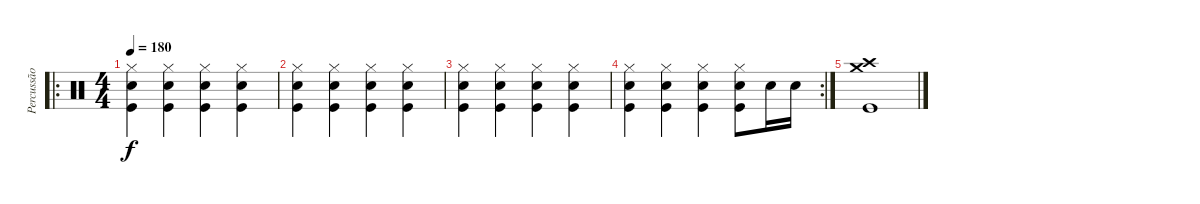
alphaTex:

\track ("Percussão" "Percussão") {instrument percussion}
\staff {score}
\articulation defaults
\ro
\ts (4 4)
\tempo 180
\clef neutral
\ks c
("Hi-Hat (closed)" "Kick (hit)" "Snare (hit) 2").4{dy f} ("Hi-Hat (closed)" "Kick (hit)" "Snare (hit) 2").4 ("Hi-Hat (closed)" "Kick (hit)" "Snare (hit) 2").4 ("Hi-Hat (closed)" "Kick (hit)" "Snare (hit) 2").4 |
("Hi-Hat (closed)" "Kick (hit)" "Snare (hit) 2").4 ("Hi-Hat (closed)" "Kick (hit)" "Snare (hit) 2").4 ("Hi-Hat (closed)" "Kick (hit)" "Snare (hit) 2").4 ("Hi-Hat (closed)" "Kick (hit)" "Snare (hit) 2").4 |
("Hi-Hat (closed)" "Kick (hit)" "Snare (hit) 2").4 ("Hi-Hat (closed)" "Kick (hit)" "Snare (hit) 2").4 ("Hi-Hat (closed)" "Kick (hit)" "Snare (hit) 2").4 ("Hi-Hat (closed)" "Kick (hit)" "Snare (hit) 2").4 |
\rc 2
("Hi-Hat (closed)" "Kick (hit)" "Snare (hit) 2").4 ("Hi-Hat (closed)" "Kick (hit)" "Snare (hit) 2").4 ("Hi-Hat (closed)" "Kick (hit)" "Snare (hit) 2").4 ("Hi-Hat (closed)" "Kick (hit)" "Snare (hit) 2").8 "Snare (hit) 2".16 "Snare (hit) 2".16 |
("Crash high (hit)" "Crash medium (hit)" "Kick (hit)").1
